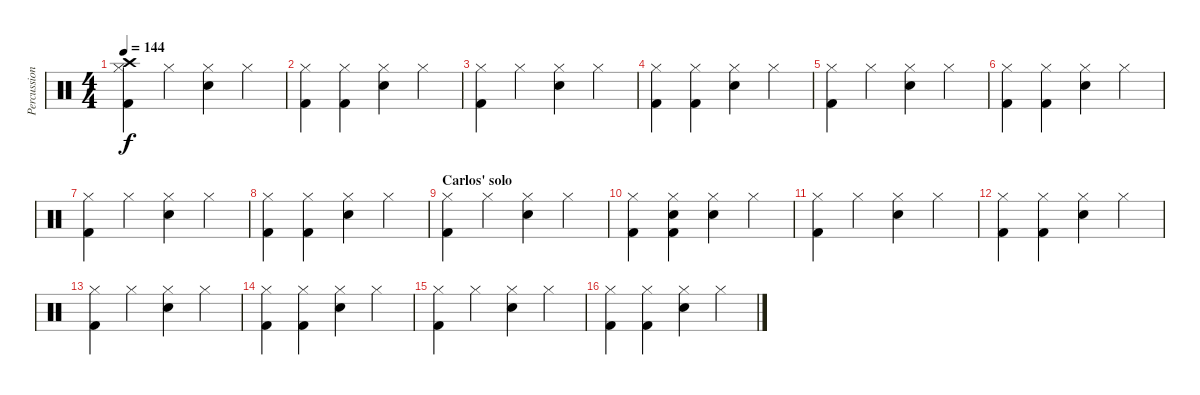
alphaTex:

\track ("Percussion" "Percussion") {instrument percussion}
\staff {score}
\articulation defaults
\ts (4 4)
\tempo 144
\clef neutral
\ks c
("Crash high (hit)" "Hi-Hat (closed)" "Kick (hit) 2").4{dy f} "Hi-Hat (closed)".4 ("Hi-Hat (closed)" "Electric Snare (hit)").4 "Hi-Hat (closed)".4 |
("Hi-Hat (closed)" "Kick (hit) 2").4 ("Hi-Hat (closed)" "Kick (hit) 2").4 ("Hi-Hat (closed)" "Electric Snare (hit)").4 "Hi-Hat (closed)".4 |
("Hi-Hat (closed)" "Kick (hit) 2").4 "Hi-Hat (closed)".4 ("Hi-Hat (closed)" "Electric Snare (hit)").4 "Hi-Hat (closed)".4 |
("Hi-Hat (closed)" "Kick (hit) 2").4 ("Hi-Hat (closed)" "Kick (hit) 2").4 ("Hi-Hat (closed)" "Electric Snare (hit)").4 "Hi-Hat (closed)".4 |
("Hi-Hat (closed)" "Kick (hit) 2").4 "Hi-Hat (closed)".4 ("Hi-Hat (closed)" "Electric Snare (hit)").4 "Hi-Hat (closed)".4 |
("Hi-Hat (closed)" "Kick (hit) 2").4 ("Hi-Hat (closed)" "Kick (hit) 2").4 ("Hi-Hat (closed)" "Electric Snare (hit)").4 "Hi-Hat (closed)".4 |
("Hi-Hat (closed)" "Kick (hit) 2").4 "Hi-Hat (closed)".4 ("Hi-Hat (closed)" "Electric Snare (hit)").4 "Hi-Hat (closed)".4 |
("Hi-Hat (closed)" "Kick (hit) 2").4 ("Hi-Hat (closed)" "Kick (hit) 2").4 ("Hi-Hat (closed)" "Electric Snare (hit)").4 "Hi-Hat (closed)".4 |
\section ("" "Carlos' solo")
("Hi-Hat (closed)" "Kick (hit) 2").4 "Hi-Hat (closed)".4 ("Hi-Hat (closed)" "Electric Snare (hit)").4 "Hi-Hat (closed)".4 |
("Hi-Hat (closed)" "Kick (hit) 2").4 ("Hi-Hat (closed)" "Snare (hit)" "Kick (hit) 2").4 ("Hi-Hat (closed)" "Electric Snare (hit)").4 "Hi-Hat (closed)".4 |
("Hi-Hat (closed)" "Kick (hit) 2").4 "Hi-Hat (closed)".4 ("Hi-Hat (closed)" "Electric Snare (hit)").4 "Hi-Hat (closed)".4 |
("Hi-Hat (closed)" "Kick (hit) 2").4 ("Hi-Hat (closed)" "Kick (hit) 2").4 ("Hi-Hat (closed)" "Electric Snare (hit)").4 "Hi-Hat (closed)".4 |
("Hi-Hat (closed)" "Kick (hit) 2").4 "Hi-Hat (closed)".4 ("Hi-Hat (closed)" "Electric Snare (hit)").4 "Hi-Hat (closed)".4 |
("Hi-Hat (closed)" "Kick (hit) 2").4 ("Hi-Hat (closed)" "Kick (hit) 2").4 ("Hi-Hat (closed)" "Electric Snare (hit)").4 "Hi-Hat (closed)".4 |
("Hi-Hat (closed)" "Kick (hit) 2").4 "Hi-Hat (closed)".4 ("Hi-Hat (closed)" "Electric Snare (hit)").4 "Hi-Hat (closed)".4 |
("Hi-Hat (closed)" "Kick (hit) 2").4 ("Hi-Hat (closed)" "Kick (hit) 2").4 ("Hi-Hat (closed)" "Electric Snare (hit)").4 "Hi-Hat (closed)".4
